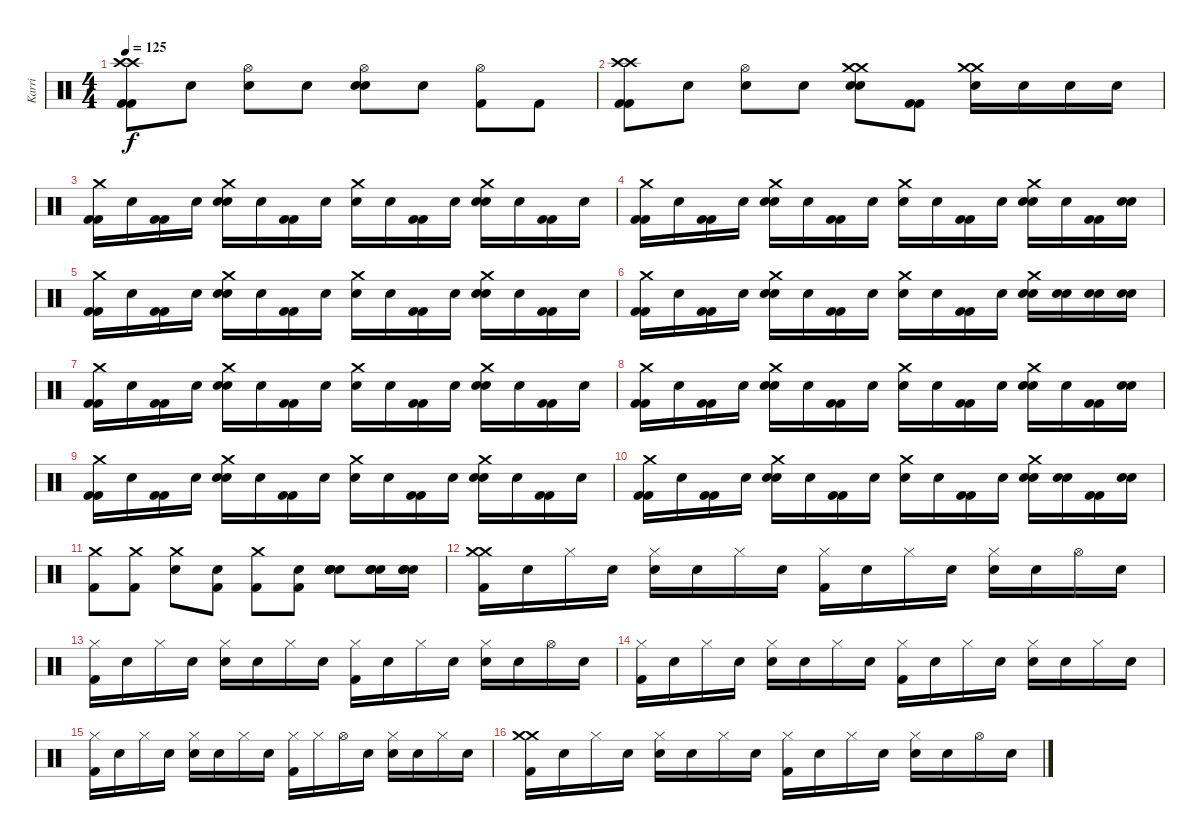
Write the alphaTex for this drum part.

\track ("Karri" "Karri") {instrument percussion}
\staff {score}
\articulation defaults
\ts (4 4)
\tempo 125
\clef neutral
\ks c
("Crash high (hit)" "Crash high (hit)" "Kick (hit) 2" "Kick (hit) 2").8{dy f} "Snare (hit)"{x}.8 ("Hi-Hat (open)" "Snare (hit)"{x}).8 "Snare (hit)"{x}.8 ("Hi-Hat (open)" "Snare (hit) 2" "Snare (hit) 2").8 "Snare (hit)"{x}.8 ("Hi-Hat (open)" "Kick (hit) 2"{x}).8 "Kick (hit) 2"{x}.8 |
("Crash high (hit)" "Crash high (hit)" "Kick (hit) 2" "Kick (hit) 2").8 "Snare (hit)"{x}.8 ("Hi-Hat (open)" "Snare (hit)"{x}).8 "Snare (hit)"{x}.8 ("Crash medium (hit)" "Crash medium (hit)" "Snare (hit) 2" "Snare (hit) 2").8 ("Kick (hit) 2" "Kick (hit) 2").8 ("Crash medium (hit)" "Crash medium (hit)" "Snare (hit) 2").16 "Snare (hit) 2"{x}.16 "Snare (hit) 2".16 "Snare (hit) 2".16 |
("Crash medium (hit)" "Kick (hit) 2" "Kick (hit) 2").16 "Snare (hit)"{x}.16 ("Kick (hit) 2" "Kick (hit) 2").16 "Snare (hit)"{x}.16 ("Crash medium (hit)" "Snare (hit) 2" "Snare (hit) 2").16 "Snare (hit)"{x}.16 ("Kick (hit) 2" "Kick (hit) 2").16 "Snare (hit)"{x}.16 ("Crash medium (hit)" "Snare (hit)"{x}).16 "Snare (hit)"{x}.16 ("Kick (hit) 2" "Kick (hit) 2").16 "Snare (hit)"{x}.16 ("Crash medium (hit)" "Snare (hit) 2" "Snare (hit) 2").16 "Snare (hit)"{x}.16 ("Kick (hit) 2" "Kick (hit) 2").16 "Snare (hit)"{x}.16 |
("Crash medium (hit)" "Kick (hit) 2" "Kick (hit) 2").16 "Snare (hit)"{x}.16 ("Kick (hit) 2" "Kick (hit) 2").16 "Snare (hit)"{x}.16 ("Crash medium (hit)" "Snare (hit) 2" "Snare (hit) 2").16 "Snare (hit)"{x}.16 ("Kick (hit) 2" "Kick (hit) 2").16 "Snare (hit)"{x}.16 ("Crash medium (hit)" "Snare (hit)"{x}).16 "Snare (hit)"{x}.16 ("Kick (hit) 2" "Kick (hit) 2").16 "Snare (hit)"{x}.16 ("Crash medium (hit)" "Snare (hit) 2" "Snare (hit) 2").16 "Snare (hit)"{x}.16 ("Kick (hit) 2" "Kick (hit) 2").16 ("Snare (hit) 2"{x} "Snare (hit) 2"{x}).16 |
("Crash medium (hit)" "Kick (hit) 2" "Kick (hit) 2").16 "Snare (hit)"{x}.16 ("Kick (hit) 2" "Kick (hit) 2").16 "Snare (hit)"{x}.16 ("Crash medium (hit)" "Snare (hit) 2" "Snare (hit) 2").16 "Snare (hit)"{x}.16 ("Kick (hit) 2" "Kick (hit) 2").16 "Snare (hit)"{x}.16 ("Crash medium (hit)" "Snare (hit)"{x}).16 "Snare (hit)"{x}.16 ("Kick (hit) 2" "Kick (hit) 2").16 "Snare (hit)"{x}.16 ("Crash medium (hit)" "Snare (hit) 2" "Snare (hit) 2").16 "Snare (hit)"{x}.16 ("Kick (hit) 2" "Kick (hit) 2").16 "Snare (hit)"{x}.16 |
("Crash medium (hit)" "Kick (hit) 2" "Kick (hit) 2").16 "Snare (hit)"{x}.16 ("Kick (hit) 2" "Kick (hit) 2").16 "Snare (hit)"{x}.16 ("Crash medium (hit)" "Snare (hit) 2" "Snare (hit) 2").16 "Snare (hit)"{x}.16 ("Kick (hit) 2" "Kick (hit) 2").16 "Snare (hit)"{x}.16 ("Crash medium (hit)" "Snare (hit)"{x}).16 "Snare (hit)"{x}.16 ("Kick (hit) 2" "Kick (hit) 2").16 "Snare (hit)"{x}.16 ("Crash medium (hit)" "Snare (hit) 2" "Snare (hit) 2").16 ("Snare (hit) 2"{x} "Snare (hit) 2"{x}).16 ("Snare (hit) 2" "Snare (hit) 2").16 ("Snare (hit) 2" "Snare (hit) 2").16 |
("Crash medium (hit)" "Kick (hit) 2" "Kick (hit) 2").16 "Snare (hit)"{x}.16 ("Kick (hit) 2" "Kick (hit) 2").16 "Snare (hit)"{x}.16 ("Crash medium (hit)" "Snare (hit) 2" "Snare (hit) 2").16 "Snare (hit)"{x}.16 ("Kick (hit) 2" "Kick (hit) 2").16 "Snare (hit)"{x}.16 ("Crash medium (hit)" "Snare (hit)"{x}).16 "Snare (hit)"{x}.16 ("Kick (hit) 2" "Kick (hit) 2").16 "Snare (hit)"{x}.16 ("Crash medium (hit)" "Snare (hit) 2" "Snare (hit) 2").16 "Snare (hit)"{x}.16 ("Kick (hit) 2" "Kick (hit) 2").16 "Snare (hit)"{x}.16 |
("Crash medium (hit)" "Kick (hit) 2" "Kick (hit) 2").16 "Snare (hit)"{x}.16 ("Kick (hit) 2" "Kick (hit) 2").16 "Snare (hit)"{x}.16 ("Crash medium (hit)" "Snare (hit) 2" "Snare (hit) 2").16 "Snare (hit)"{x}.16 ("Kick (hit) 2" "Kick (hit) 2").16 "Snare (hit)"{x}.16 ("Crash medium (hit)" "Snare (hit)"{x}).16 "Snare (hit)"{x}.16 ("Kick (hit) 2" "Kick (hit) 2").16 "Snare (hit)"{x}.16 ("Crash medium (hit)" "Snare (hit) 2" "Snare (hit) 2").16 "Snare (hit)"{x}.16 ("Kick (hit) 2" "Kick (hit) 2").16 ("Snare (hit) 2"{x} "Snare (hit) 2"{x}).16 |
("Crash medium (hit)" "Kick (hit) 2" "Kick (hit) 2").16 "Snare (hit)"{x}.16 ("Kick (hit) 2" "Kick (hit) 2").16 "Snare (hit)"{x}.16 ("Crash medium (hit)" "Snare (hit) 2" "Snare (hit) 2").16 "Snare (hit)"{x}.16 ("Kick (hit) 2" "Kick (hit) 2").16 "Snare (hit)"{x}.16 ("Crash medium (hit)" "Snare (hit)"{x}).16 "Snare (hit)"{x}.16 ("Kick (hit) 2" "Kick (hit) 2").16 "Snare (hit)"{x}.16 ("Crash medium (hit)" "Snare (hit) 2" "Snare (hit) 2").16 "Snare (hit)"{x}.16 ("Kick (hit) 2" "Kick (hit) 2").16 "Snare (hit)"{x}.16 |
("Crash medium (hit)" "Kick (hit) 2" "Kick (hit) 2").16 "Snare (hit)"{x}.16 ("Kick (hit) 2" "Kick (hit) 2").16 "Snare (hit)"{x}.16 ("Crash medium (hit)" "Snare (hit) 2" "Snare (hit) 2").16 "Snare (hit)"{x}.16 ("Kick (hit) 2" "Kick (hit) 2").16 "Snare (hit)"{x}.16 ("Crash medium (hit)" "Snare (hit)"{x}).16 "Snare (hit)"{x}.16 ("Kick (hit) 2" "Kick (hit) 2").16 "Snare (hit)"{x}.16 ("Crash medium (hit)" "Snare (hit) 2" "Snare (hit) 2").16 ("Snare (hit) 2"{x} "Snare (hit) 2"{x}).16 ("Kick (hit) 2" "Kick (hit) 2").16 ("Snare (hit) 2"{x} "Snare (hit) 2"{x}).16 |
("Crash medium (hit)" "Kick (hit) 2").8 ("Crash medium (hit)"{x} "Kick (hit) 2"{x}).8 ("Crash medium (hit)" "Snare (hit) 2").8 ("Snare (hit)"{x} "Kick (hit) 2"{x}).8 ("Crash medium (hit)" "Kick (hit) 2").8 ("Snare (hit)"{x} "Kick (hit) 2"{x}).8 ("Snare (hit)"{x} "Snare (hit) 2" "Snare (hit) 2" "Snare (hit) 2").8 ("Snare (hit)"{x} "Snare (hit) 2" "Snare (hit) 2" "Snare (hit) 2").16 ("Snare (hit)"{x} "Snare (hit) 2" "Snare (hit) 2" "Snare (hit) 2").16 |
("Crash medium (hit)" "Crash medium (hit)" "Kick (hit) 2").16 "Snare (hit)"{x}.16 "Hi-Hat (closed)".16 "Snare (hit)"{x}.16 ("Hi-Hat (closed)" "Snare (hit) 2").16 "Snare (hit)"{x}.16 "Hi-Hat (closed)".16 "Snare (hit)"{x}.16 ("Hi-Hat (closed)" "Kick (hit) 2").16 "Snare (hit)"{x}.16 "Hi-Hat (closed)".16 "Snare (hit)"{x}.16 ("Hi-Hat (closed)" "Snare (hit) 2").16 "Snare (hit)"{x}.16 "Hi-Hat (open)".16 "Snare (hit)"{x}.16 |
("Hi-Hat (closed)" "Kick (hit) 2").16 "Snare (hit)"{x}.16 "Hi-Hat (closed)".16 "Snare (hit)"{x}.16 ("Hi-Hat (closed)" "Snare (hit) 2").16 "Snare (hit)"{x}.16 "Hi-Hat (closed)".16 "Snare (hit)"{x}.16 ("Hi-Hat (closed)" "Kick (hit) 2").16 "Snare (hit)"{x}.16 "Hi-Hat (closed)".16 "Snare (hit)"{x}.16 ("Hi-Hat (closed)" "Snare (hit) 2").16 "Snare (hit)"{x}.16 "Hi-Hat (open)".16 "Snare (hit)"{x}.16 |
("Hi-Hat (closed)" "Kick (hit) 2").16 "Snare (hit)"{x}.16 "Hi-Hat (closed)".16 "Snare (hit)"{x}.16 ("Hi-Hat (closed)" "Snare (hit) 2").16 "Snare (hit)"{x}.16 "Hi-Hat (closed)".16 "Snare (hit)"{x}.16 ("Hi-Hat (closed)" "Kick (hit) 2").16 "Snare (hit)"{x}.16 "Hi-Hat (closed)".16 "Snare (hit)"{x}.16 ("Hi-Hat (closed)" "Snare (hit) 2").16 "Snare (hit)"{x}.16 "Hi-Hat (closed)".16 "Snare (hit)"{x}.16 |
("Hi-Hat (closed)" "Kick (hit) 2").16 "Snare (hit)"{x}.16 "Hi-Hat (closed)".16 "Snare (hit)"{x}.16 ("Hi-Hat (closed)" "Snare (hit) 2").16 "Snare (hit)"{x}.16 "Hi-Hat (closed)".16 "Snare (hit)"{x}.16 ("Hi-Hat (closed)" "Kick (hit) 2").16 "Hi-Hat (closed)".16 "Hi-Hat (open)".16 "Snare (hit)"{x}.16 ("Hi-Hat (closed)" "Snare (hit) 2").16 "Snare (hit)"{x}.16 "Hi-Hat (closed)".16 "Snare (hit)"{x}.16 |
("Crash medium (hit)" "Crash medium (hit)" "Kick (hit) 2").16 "Snare (hit)"{x}.16 "Hi-Hat (closed)".16 "Snare (hit)"{x}.16 ("Hi-Hat (closed)" "Snare (hit) 2").16 "Snare (hit)"{x}.16 "Hi-Hat (closed)".16 "Snare (hit)"{x}.16 ("Hi-Hat (closed)" "Kick (hit) 2").16 "Snare (hit)"{x}.16 "Hi-Hat (closed)".16 "Snare (hit)"{x}.16 ("Hi-Hat (closed)" "Snare (hit) 2").16 "Snare (hit)"{x}.16 "Hi-Hat (open)".16 "Snare (hit)"{x}.16
